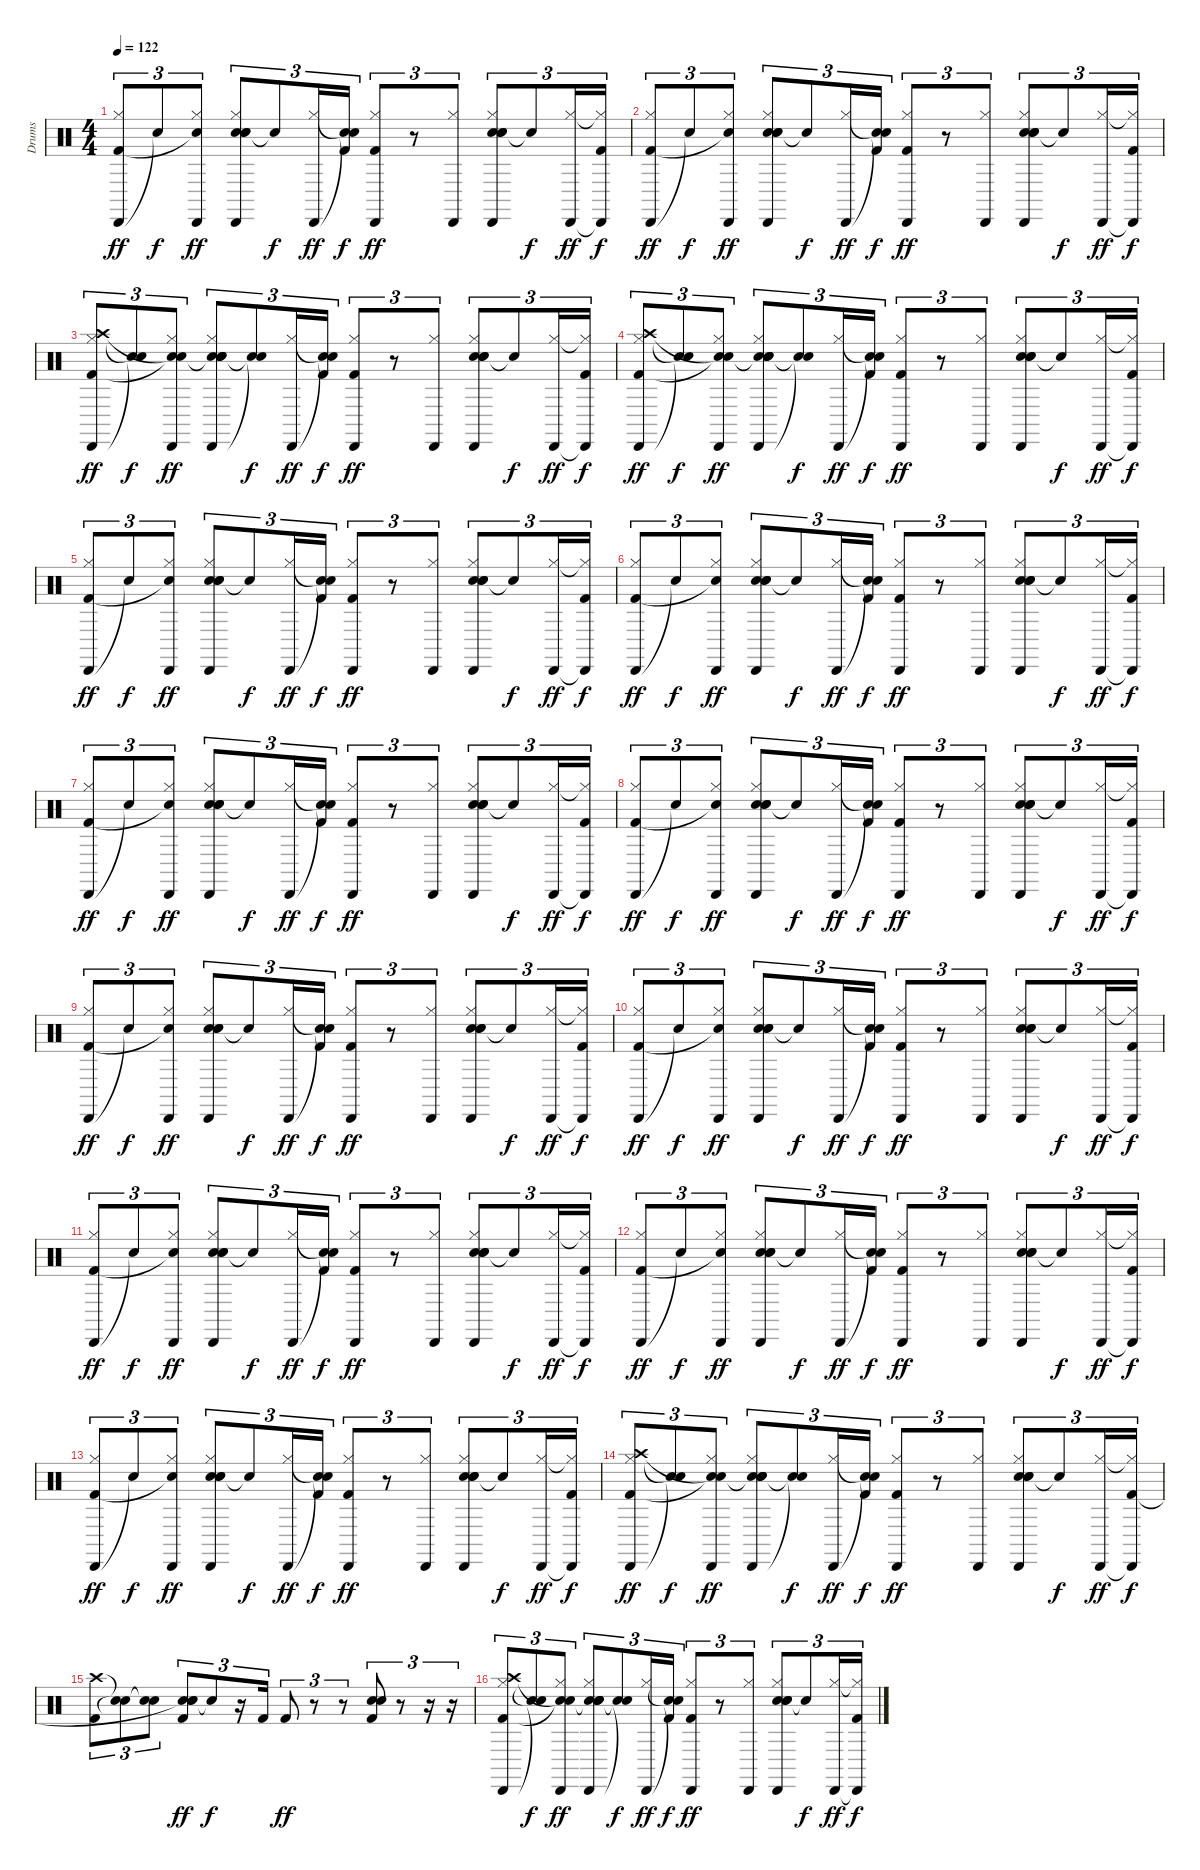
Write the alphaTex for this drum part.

\track ("Drums" "Drums") {instrument percussion}
\staff {score}
\articulation defaults
\ts (4 4)
\tempo 122
\clef neutral
\ks c
("Cabasa (hit)" "Hi-Hat (closed)" "Kick (hit) 2").8{tu (3 2) dy ff} "Snare (hit)"{t}.8{tu (3 2) dy f} ("Cabasa (hit)" "Hi-Hat (closed)" "Snare (hit)"{t}).8{tu (3 2) dy ff} ("Hand Clap (hit)" "Cabasa (hit)" "Hi-Hat (closed)" "Snare (hit) 2" "Hand Clap (hit)").8{tu (3 2)} "Snare (hit)"{t}.8{tu (3 2) dy f} ("Cabasa (hit)" "Hi-Hat (closed)").16{tu (3 2) dy ff} ("Snare (hit)"{t} "Snare (hit)"{t} "Kick (hit) 2").16{tu (3 2) dy f} ("Cabasa (hit)" "Hi-Hat (closed)" "Kick (hit) 2").8{tu (3 2) dy ff} r.8{tu (3 2)} ("Cabasa (hit)" "Hi-Hat (closed)").8{tu (3 2)} ("Hand Clap (hit)" "Cabasa (hit)" "Hi-Hat (closed)" "Snare (hit) 2" "Hand Clap (hit)").8{tu (3 2)} "Snare (hit)"{t}.8{tu (3 2) dy f} ("Cabasa (hit)" "Hi-Hat (closed)").16{tu (3 2) dy ff} ("Cabasa (hit)"{t} "Hi-Hat (closed)"{t} "Kick (hit) 2").16{tu (3 2) dy f} |
("Cabasa (hit)" "Hi-Hat (closed)" "Kick (hit) 2").8{tu (3 2) dy ff} "Snare (hit)"{t}.8{tu (3 2) dy f} ("Cabasa (hit)" "Hi-Hat (closed)" "Snare (hit)"{t}).8{tu (3 2) dy ff} ("Hand Clap (hit)" "Cabasa (hit)" "Hi-Hat (closed)" "Snare (hit) 2" "Hand Clap (hit)").8{tu (3 2)} "Snare (hit)"{t}.8{tu (3 2) dy f} ("Cabasa (hit)" "Hi-Hat (closed)").16{tu (3 2) dy ff} ("Snare (hit)"{t} "Snare (hit)"{t} "Kick (hit) 2").16{tu (3 2) dy f} ("Cabasa (hit)" "Hi-Hat (closed)" "Kick (hit) 2").8{tu (3 2) dy ff} r.8{tu (3 2)} ("Cabasa (hit)" "Hi-Hat (closed)").8{tu (3 2)} ("Hand Clap (hit)" "Cabasa (hit)" "Hi-Hat (closed)" "Snare (hit) 2" "Hand Clap (hit)").8{tu (3 2)} "Snare (hit)"{t}.8{tu (3 2) dy f} ("Cabasa (hit)" "Hi-Hat (closed)").16{tu (3 2) dy ff} ("Cabasa (hit)"{t} "Hi-Hat (closed)"{t} "Kick (hit) 2").16{tu (3 2) dy f} |
("Cabasa (hit)" "Hi-Hat (closed)" "Crash high (hit)" "Kick (hit) 2").8{tu (3 2) dy ff} ("Snare (hit)"{t} "Snare (hit)"{t}).8{tu (3 2) dy f} ("Cabasa (hit)" "Hi-Hat (closed)" "Snare (hit)"{t} "Snare (hit)"{t}).8{tu (3 2) dy ff} ("Hand Clap (hit)" "Cabasa (hit)" "Hi-Hat (closed)" "Snare (hit)"{t} "Snare (hit) 2" "Hand Clap (hit)").8{tu (3 2)} ("Snare (hit)"{t} "Snare (hit)"{t}).8{tu (3 2) dy f} ("Cabasa (hit)" "Hi-Hat (closed)").16{tu (3 2) dy ff} ("Snare (hit)"{t} "Snare (hit)"{t} "Kick (hit) 2").16{tu (3 2) dy f} ("Cabasa (hit)" "Hi-Hat (closed)" "Kick (hit) 2").8{tu (3 2) dy ff} r.8{tu (3 2)} ("Cabasa (hit)" "Hi-Hat (closed)").8{tu (3 2)} ("Hand Clap (hit)" "Cabasa (hit)" "Hi-Hat (closed)" "Snare (hit) 2" "Hand Clap (hit)").8{tu (3 2)} "Snare (hit)"{t}.8{tu (3 2) dy f} ("Cabasa (hit)" "Hi-Hat (closed)").16{tu (3 2) dy ff} ("Cabasa (hit)"{t} "Hi-Hat (closed)"{t} "Kick (hit) 2").16{tu (3 2) dy f} |
("Cabasa (hit)" "Hi-Hat (closed)" "Crash high (hit)" "Kick (hit) 2").8{tu (3 2) dy ff} ("Snare (hit)"{t} "Snare (hit)"{t}).8{tu (3 2) dy f} ("Cabasa (hit)" "Hi-Hat (closed)" "Snare (hit)"{t} "Snare (hit)"{t}).8{tu (3 2) dy ff} ("Hand Clap (hit)" "Cabasa (hit)" "Hi-Hat (closed)" "Snare (hit)"{t} "Snare (hit) 2" "Hand Clap (hit)").8{tu (3 2)} ("Snare (hit)"{t} "Snare (hit)"{t}).8{tu (3 2) dy f} ("Cabasa (hit)" "Hi-Hat (closed)").16{tu (3 2) dy ff} ("Snare (hit)"{t} "Snare (hit)"{t} "Kick (hit) 2").16{tu (3 2) dy f} ("Cabasa (hit)" "Hi-Hat (closed)" "Kick (hit) 2").8{tu (3 2) dy ff} r.8{tu (3 2)} ("Cabasa (hit)" "Hi-Hat (closed)").8{tu (3 2)} ("Hand Clap (hit)" "Cabasa (hit)" "Hi-Hat (closed)" "Snare (hit) 2" "Hand Clap (hit)").8{tu (3 2)} "Snare (hit)"{t}.8{tu (3 2) dy f} ("Cabasa (hit)" "Hi-Hat (closed)").16{tu (3 2) dy ff} ("Cabasa (hit)"{t} "Hi-Hat (closed)"{t} "Kick (hit) 2").16{tu (3 2) dy f} |
("Cabasa (hit)" "Hi-Hat (closed)" "Kick (hit) 2").8{tu (3 2) dy ff} "Snare (hit)"{t}.8{tu (3 2) dy f} ("Cabasa (hit)" "Hi-Hat (closed)" "Snare (hit)"{t}).8{tu (3 2) dy ff} ("Hand Clap (hit)" "Cabasa (hit)" "Hi-Hat (closed)" "Snare (hit) 2" "Hand Clap (hit)").8{tu (3 2)} "Snare (hit)"{t}.8{tu (3 2) dy f} ("Cabasa (hit)" "Hi-Hat (closed)").16{tu (3 2) dy ff} ("Snare (hit)"{t} "Snare (hit)"{t} "Kick (hit) 2").16{tu (3 2) dy f} ("Cabasa (hit)" "Hi-Hat (closed)" "Kick (hit) 2").8{tu (3 2) dy ff} r.8{tu (3 2)} ("Cabasa (hit)" "Hi-Hat (closed)").8{tu (3 2)} ("Hand Clap (hit)" "Cabasa (hit)" "Hi-Hat (closed)" "Snare (hit) 2" "Hand Clap (hit)").8{tu (3 2)} "Snare (hit)"{t}.8{tu (3 2) dy f} ("Cabasa (hit)" "Hi-Hat (closed)").16{tu (3 2) dy ff} ("Cabasa (hit)"{t} "Hi-Hat (closed)"{t} "Kick (hit) 2").16{tu (3 2) dy f} |
("Cabasa (hit)" "Hi-Hat (closed)" "Kick (hit) 2").8{tu (3 2) dy ff} "Snare (hit)"{t}.8{tu (3 2) dy f} ("Cabasa (hit)" "Hi-Hat (closed)" "Snare (hit)"{t}).8{tu (3 2) dy ff} ("Hand Clap (hit)" "Cabasa (hit)" "Hi-Hat (closed)" "Snare (hit) 2" "Hand Clap (hit)").8{tu (3 2)} "Snare (hit)"{t}.8{tu (3 2) dy f} ("Cabasa (hit)" "Hi-Hat (closed)").16{tu (3 2) dy ff} ("Snare (hit)"{t} "Snare (hit)"{t} "Kick (hit) 2").16{tu (3 2) dy f} ("Cabasa (hit)" "Hi-Hat (closed)" "Kick (hit) 2").8{tu (3 2) dy ff} r.8{tu (3 2)} ("Cabasa (hit)" "Hi-Hat (closed)").8{tu (3 2)} ("Hand Clap (hit)" "Cabasa (hit)" "Hi-Hat (closed)" "Snare (hit) 2" "Hand Clap (hit)").8{tu (3 2)} "Snare (hit)"{t}.8{tu (3 2) dy f} ("Cabasa (hit)" "Hi-Hat (closed)").16{tu (3 2) dy ff} ("Cabasa (hit)"{t} "Hi-Hat (closed)"{t} "Kick (hit) 2").16{tu (3 2) dy f} |
("Cabasa (hit)" "Hi-Hat (closed)" "Kick (hit) 2").8{tu (3 2) dy ff} "Snare (hit)"{t}.8{tu (3 2) dy f} ("Cabasa (hit)" "Hi-Hat (closed)" "Snare (hit)"{t}).8{tu (3 2) dy ff} ("Hand Clap (hit)" "Cabasa (hit)" "Hi-Hat (closed)" "Snare (hit) 2" "Hand Clap (hit)").8{tu (3 2)} "Snare (hit)"{t}.8{tu (3 2) dy f} ("Cabasa (hit)" "Hi-Hat (closed)").16{tu (3 2) dy ff} ("Snare (hit)"{t} "Snare (hit)"{t} "Kick (hit) 2").16{tu (3 2) dy f} ("Cabasa (hit)" "Hi-Hat (closed)" "Kick (hit) 2").8{tu (3 2) dy ff} r.8{tu (3 2)} ("Cabasa (hit)" "Hi-Hat (closed)").8{tu (3 2)} ("Hand Clap (hit)" "Cabasa (hit)" "Hi-Hat (closed)" "Snare (hit) 2" "Hand Clap (hit)").8{tu (3 2)} "Snare (hit)"{t}.8{tu (3 2) dy f} ("Cabasa (hit)" "Hi-Hat (closed)").16{tu (3 2) dy ff} ("Cabasa (hit)"{t} "Hi-Hat (closed)"{t} "Kick (hit) 2").16{tu (3 2) dy f} |
("Cabasa (hit)" "Hi-Hat (closed)" "Kick (hit) 2").8{tu (3 2) dy ff} "Snare (hit)"{t}.8{tu (3 2) dy f} ("Cabasa (hit)" "Hi-Hat (closed)" "Snare (hit)"{t}).8{tu (3 2) dy ff} ("Hand Clap (hit)" "Cabasa (hit)" "Hi-Hat (closed)" "Snare (hit) 2" "Hand Clap (hit)").8{tu (3 2)} "Snare (hit)"{t}.8{tu (3 2) dy f} ("Cabasa (hit)" "Hi-Hat (closed)").16{tu (3 2) dy ff} ("Snare (hit)"{t} "Snare (hit)"{t} "Kick (hit) 2").16{tu (3 2) dy f} ("Cabasa (hit)" "Hi-Hat (closed)" "Kick (hit) 2").8{tu (3 2) dy ff} r.8{tu (3 2)} ("Cabasa (hit)" "Hi-Hat (closed)").8{tu (3 2)} ("Hand Clap (hit)" "Cabasa (hit)" "Hi-Hat (closed)" "Snare (hit) 2" "Hand Clap (hit)").8{tu (3 2)} "Snare (hit)"{t}.8{tu (3 2) dy f} ("Cabasa (hit)" "Hi-Hat (closed)").16{tu (3 2) dy ff} ("Cabasa (hit)"{t} "Hi-Hat (closed)"{t} "Kick (hit) 2").16{tu (3 2) dy f} |
("Cabasa (hit)" "Hi-Hat (closed)" "Kick (hit) 2").8{tu (3 2) dy ff} "Snare (hit)"{t}.8{tu (3 2) dy f} ("Cabasa (hit)" "Hi-Hat (closed)" "Snare (hit)"{t}).8{tu (3 2) dy ff} ("Hand Clap (hit)" "Cabasa (hit)" "Hi-Hat (closed)" "Snare (hit) 2" "Hand Clap (hit)").8{tu (3 2)} "Snare (hit)"{t}.8{tu (3 2) dy f} ("Cabasa (hit)" "Hi-Hat (closed)").16{tu (3 2) dy ff} ("Snare (hit)"{t} "Snare (hit)"{t} "Kick (hit) 2").16{tu (3 2) dy f} ("Cabasa (hit)" "Hi-Hat (closed)" "Kick (hit) 2").8{tu (3 2) dy ff} r.8{tu (3 2)} ("Cabasa (hit)" "Hi-Hat (closed)").8{tu (3 2)} ("Hand Clap (hit)" "Cabasa (hit)" "Hi-Hat (closed)" "Snare (hit) 2" "Hand Clap (hit)").8{tu (3 2)} "Snare (hit)"{t}.8{tu (3 2) dy f} ("Cabasa (hit)" "Hi-Hat (closed)").16{tu (3 2) dy ff} ("Cabasa (hit)"{t} "Hi-Hat (closed)"{t} "Kick (hit) 2").16{tu (3 2) dy f} |
("Cabasa (hit)" "Hi-Hat (closed)" "Kick (hit) 2").8{tu (3 2) dy ff} "Snare (hit)"{t}.8{tu (3 2) dy f} ("Cabasa (hit)" "Hi-Hat (closed)" "Snare (hit)"{t}).8{tu (3 2) dy ff} ("Hand Clap (hit)" "Cabasa (hit)" "Hi-Hat (closed)" "Snare (hit) 2" "Hand Clap (hit)").8{tu (3 2)} "Snare (hit)"{t}.8{tu (3 2) dy f} ("Cabasa (hit)" "Hi-Hat (closed)").16{tu (3 2) dy ff} ("Snare (hit)"{t} "Snare (hit)"{t} "Kick (hit) 2").16{tu (3 2) dy f} ("Cabasa (hit)" "Hi-Hat (closed)" "Kick (hit) 2").8{tu (3 2) dy ff} r.8{tu (3 2)} ("Cabasa (hit)" "Hi-Hat (closed)").8{tu (3 2)} ("Hand Clap (hit)" "Cabasa (hit)" "Hi-Hat (closed)" "Snare (hit) 2" "Hand Clap (hit)").8{tu (3 2)} "Snare (hit)"{t}.8{tu (3 2) dy f} ("Cabasa (hit)" "Hi-Hat (closed)").16{tu (3 2) dy ff} ("Cabasa (hit)"{t} "Hi-Hat (closed)"{t} "Kick (hit) 2").16{tu (3 2) dy f} |
("Cabasa (hit)" "Hi-Hat (closed)" "Kick (hit) 2").8{tu (3 2) dy ff} "Snare (hit)"{t}.8{tu (3 2) dy f} ("Cabasa (hit)" "Hi-Hat (closed)" "Snare (hit)"{t}).8{tu (3 2) dy ff} ("Hand Clap (hit)" "Cabasa (hit)" "Hi-Hat (closed)" "Snare (hit) 2" "Hand Clap (hit)").8{tu (3 2)} "Snare (hit)"{t}.8{tu (3 2) dy f} ("Cabasa (hit)" "Hi-Hat (closed)").16{tu (3 2) dy ff} ("Snare (hit)"{t} "Snare (hit)"{t} "Kick (hit) 2").16{tu (3 2) dy f} ("Cabasa (hit)" "Hi-Hat (closed)" "Kick (hit) 2").8{tu (3 2) dy ff} r.8{tu (3 2)} ("Cabasa (hit)" "Hi-Hat (closed)").8{tu (3 2)} ("Hand Clap (hit)" "Cabasa (hit)" "Hi-Hat (closed)" "Snare (hit) 2" "Hand Clap (hit)").8{tu (3 2)} "Snare (hit)"{t}.8{tu (3 2) dy f} ("Cabasa (hit)" "Hi-Hat (closed)").16{tu (3 2) dy ff} ("Cabasa (hit)"{t} "Hi-Hat (closed)"{t} "Kick (hit) 2").16{tu (3 2) dy f} |
("Cabasa (hit)" "Hi-Hat (closed)" "Kick (hit) 2").8{tu (3 2) dy ff} "Snare (hit)"{t}.8{tu (3 2) dy f} ("Cabasa (hit)" "Hi-Hat (closed)" "Snare (hit)"{t}).8{tu (3 2) dy ff} ("Hand Clap (hit)" "Cabasa (hit)" "Hi-Hat (closed)" "Snare (hit) 2" "Hand Clap (hit)").8{tu (3 2)} "Snare (hit)"{t}.8{tu (3 2) dy f} ("Cabasa (hit)" "Hi-Hat (closed)").16{tu (3 2) dy ff} ("Snare (hit)"{t} "Snare (hit)"{t} "Kick (hit) 2").16{tu (3 2) dy f} ("Cabasa (hit)" "Hi-Hat (closed)" "Kick (hit) 2").8{tu (3 2) dy ff} r.8{tu (3 2)} ("Cabasa (hit)" "Hi-Hat (closed)").8{tu (3 2)} ("Hand Clap (hit)" "Cabasa (hit)" "Hi-Hat (closed)" "Snare (hit) 2" "Hand Clap (hit)").8{tu (3 2)} "Snare (hit)"{t}.8{tu (3 2) dy f} ("Cabasa (hit)" "Hi-Hat (closed)").16{tu (3 2) dy ff} ("Cabasa (hit)"{t} "Hi-Hat (closed)"{t} "Kick (hit) 2").16{tu (3 2) dy f} |
("Cabasa (hit)" "Hi-Hat (closed)" "Kick (hit) 2").8{tu (3 2) dy ff} "Snare (hit)"{t}.8{tu (3 2) dy f} ("Cabasa (hit)" "Hi-Hat (closed)" "Snare (hit)"{t}).8{tu (3 2) dy ff} ("Hand Clap (hit)" "Cabasa (hit)" "Hi-Hat (closed)" "Snare (hit) 2" "Hand Clap (hit)").8{tu (3 2)} "Snare (hit)"{t}.8{tu (3 2) dy f} ("Cabasa (hit)" "Hi-Hat (closed)").16{tu (3 2) dy ff} ("Snare (hit)"{t} "Snare (hit)"{t} "Kick (hit) 2").16{tu (3 2) dy f} ("Cabasa (hit)" "Hi-Hat (closed)" "Kick (hit) 2").8{tu (3 2) dy ff} r.8{tu (3 2)} ("Cabasa (hit)" "Hi-Hat (closed)").8{tu (3 2)} ("Hand Clap (hit)" "Cabasa (hit)" "Hi-Hat (closed)" "Snare (hit) 2" "Hand Clap (hit)").8{tu (3 2)} "Snare (hit)"{t}.8{tu (3 2) dy f} ("Cabasa (hit)" "Hi-Hat (closed)").16{tu (3 2) dy ff} ("Cabasa (hit)"{t} "Hi-Hat (closed)"{t} "Kick (hit) 2").16{tu (3 2) dy f} |
("Cabasa (hit)" "Hi-Hat (closed)" "Crash high (hit)" "Kick (hit) 2").8{tu (3 2) dy ff} ("Snare (hit)"{t} "Snare (hit)"{t}).8{tu (3 2) dy f} ("Cabasa (hit)" "Hi-Hat (closed)" "Snare (hit)"{t} "Snare (hit)"{t}).8{tu (3 2) dy ff} ("Hand Clap (hit)" "Cabasa (hit)" "Hi-Hat (closed)" "Snare (hit)"{t} "Snare (hit) 2" "Hand Clap (hit)").8{tu (3 2)} ("Snare (hit)"{t} "Snare (hit)"{t}).8{tu (3 2) dy f} ("Cabasa (hit)" "Hi-Hat (closed)").16{tu (3 2) dy ff} ("Snare (hit)"{t} "Snare (hit)"{t} "Kick (hit) 2").16{tu (3 2) dy f} ("Cabasa (hit)" "Hi-Hat (closed)" "Kick (hit) 2").8{tu (3 2) dy ff} r.8{tu (3 2)} ("Cabasa (hit)" "Hi-Hat (closed)").8{tu (3 2)} ("Hand Clap (hit)" "Cabasa (hit)" "Hi-Hat (closed)" "Snare (hit) 2" "Hand Clap (hit)").8{tu (3 2)} "Snare (hit)"{t}.8{tu (3 2) dy f} ("Cabasa (hit)" "Hi-Hat (closed)").16{tu (3 2) dy ff} ("Cabasa (hit)"{t} "Hi-Hat (closed)"{t} "Kick (hit) 2").16{tu (3 2) dy f} |
("Crash high (hit)" "Kick (hit) 2").8{tu (3 2)} ("Snare (hit)"{t} "Snare (hit)"{t}).8{tu (3 2)} ("Snare (hit)"{t} "Snare (hit)"{t}).8{tu (3 2)} ("Hand Clap (hit)" "Hand Clap (hit)" "Snare (hit)"{t} "Kick (hit) 2").8{tu (3 2) dy ff} "Snare (hit)"{t}.8{tu (3 2) dy f} r.16{tu (3 2)} "Kick (hit) 2".16{tu (3 2)} "Kick (hit) 2".8{tu (3 2) dy ff} r.8{tu (3 2)} r.8{tu (3 2)} ("Hand Clap (hit)" "Hand Clap (hit)" "Kick (hit) 2").8{tu (3 2)} r.8{tu (3 2)} r.16{tu (3 2)} r.16{tu (3 2)} |
("Cabasa (hit)" "Hi-Hat (closed)" "Crash high (hit)" "Kick (hit) 2").8{tu (3 2)} ("Snare (hit)"{t} "Snare (hit)"{t}).8{tu (3 2) dy f} ("Cabasa (hit)" "Hi-Hat (closed)" "Snare (hit)"{t} "Snare (hit)"{t}).8{tu (3 2) dy ff} ("Hand Clap (hit)" "Cabasa (hit)" "Hi-Hat (closed)" "Snare (hit)"{t} "Snare (hit) 2" "Hand Clap (hit)").8{tu (3 2)} ("Snare (hit)"{t} "Snare (hit)"{t}).8{tu (3 2) dy f} ("Cabasa (hit)" "Hi-Hat (closed)").16{tu (3 2) dy ff} ("Snare (hit)"{t} "Snare (hit)"{t} "Kick (hit) 2").16{tu (3 2) dy f} ("Cabasa (hit)" "Hi-Hat (closed)" "Kick (hit) 2").8{tu (3 2) dy ff} r.8{tu (3 2)} ("Cabasa (hit)" "Hi-Hat (closed)").8{tu (3 2)} ("Hand Clap (hit)" "Cabasa (hit)" "Hi-Hat (closed)" "Snare (hit) 2" "Hand Clap (hit)").8{tu (3 2)} "Snare (hit)"{t}.8{tu (3 2) dy f} ("Cabasa (hit)" "Hi-Hat (closed)").16{tu (3 2) dy ff} ("Cabasa (hit)"{t} "Hi-Hat (closed)"{t} "Kick (hit) 2").16{tu (3 2) dy f}
